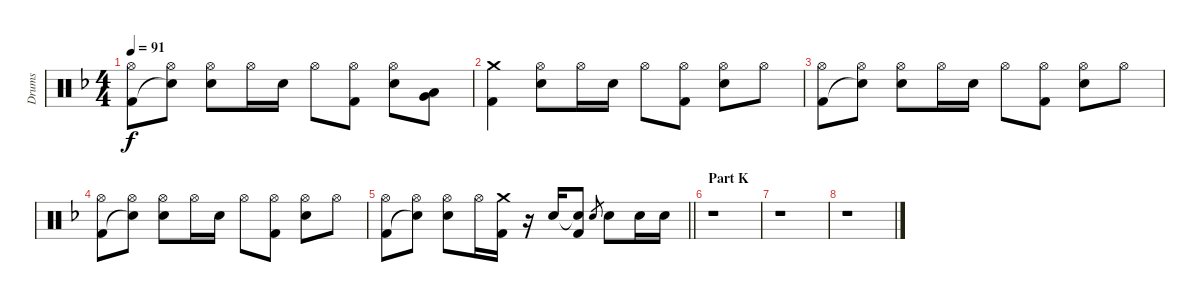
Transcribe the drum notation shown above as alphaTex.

\track ("Drums" "Drums") {instrument percussion}
\staff {score}
\articulation defaults
\ts (4 4)
\tempo 91
\clef neutral
\ks f
("Hi-Hat (open)" "Kick (hit) 2").8{dy f volume 8} ("Hi-Hat (open)" "Snare (hit)"{t}).8 ("Hi-Hat (open)" "Electric Snare (hit)").8 "Hi-Hat (open)".16 "Electric Snare (hit)".16 "Hi-Hat (open)".8 ("Hi-Hat (open)" "Kick (hit) 2").8 ("Hi-Hat (open)" "Electric Snare (hit)").8 ("Very Low Tom (hit)" "Low Floor Tom (hit)").8 |
("Crash medium (hit)" "Kick (hit) 2").4 ("Hi-Hat (open)" "Electric Snare (hit)").8 "Hi-Hat (open)".16 "Electric Snare (hit)".16 "Hi-Hat (open)".8 ("Hi-Hat (open)" "Kick (hit) 2").8 ("Hi-Hat (open)" "Electric Snare (hit)").8 "Hi-Hat (open)".8 |
("Hi-Hat (open)" "Kick (hit) 2").8{volume 7} ("Hi-Hat (open)" "Snare (hit)"{t}).8 ("Hi-Hat (open)" "Electric Snare (hit)").8 "Hi-Hat (open)".16 "Electric Snare (hit)".16 "Hi-Hat (open)".8 ("Hi-Hat (open)" "Kick (hit) 2").8 ("Hi-Hat (open)" "Electric Snare (hit)").8 "Hi-Hat (open)".8 |
("Hi-Hat (open)" "Kick (hit) 2").8 ("Hi-Hat (open)" "Snare (hit)"{t}).8 ("Hi-Hat (open)" "Electric Snare (hit)").8 "Hi-Hat (open)".16 "Electric Snare (hit)".16 "Hi-Hat (open)".8 ("Hi-Hat (open)" "Kick (hit) 2").8 ("Hi-Hat (open)" "Electric Snare (hit)").8 "Hi-Hat (open)".8 |
\barLineRight lightlight
("Hi-Hat (open)" "Kick (hit) 2").8{volume 6} ("Hi-Hat (open)" "Snare (hit)"{t}).8 ("Hi-Hat (open)" "Electric Snare (hit)").8 "Hi-Hat (open)".16 ("Crash medium (hit)" "Kick (hit) 2").16 r.16 "Electric Snare (hit)".16 ("Snare (hit)"{t} "Kick (hit) 2").8 "Electric Snare (hit)".8{gr} "Electric Snare (hit)".8 "Electric Snare (hit)".16 "Electric Snare (hit)".16 |
\section ("" "Part K")
r.1 |
r.1 |
r.1
